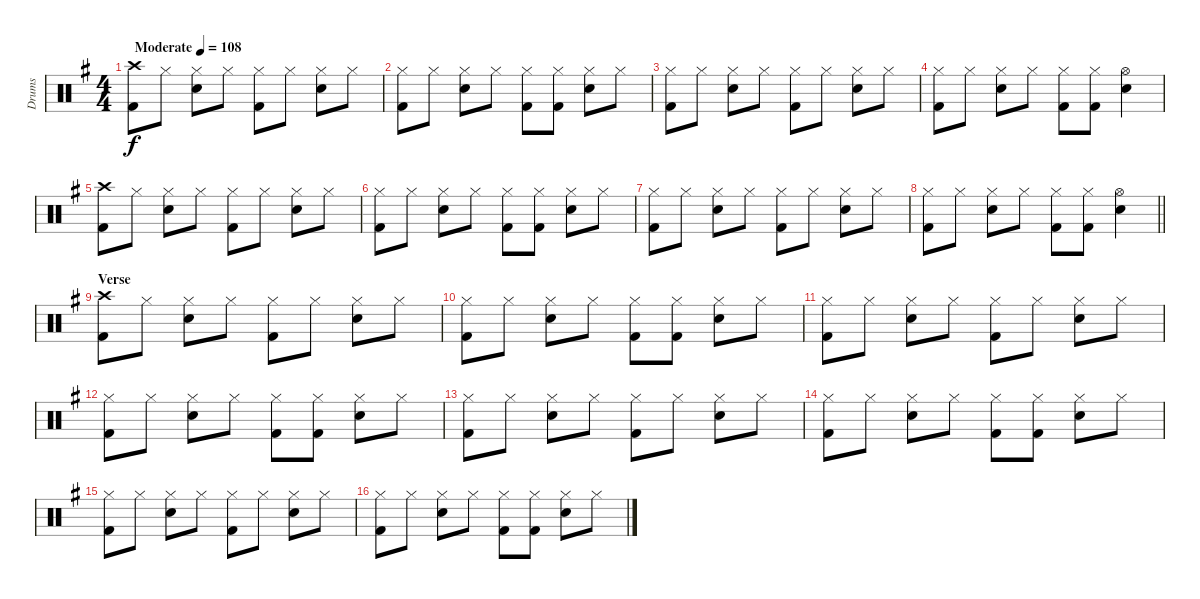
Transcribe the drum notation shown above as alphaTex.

\track ("Drums" "Drums") {instrument percussion}
\staff {score}
\articulation defaults
\ts (4 4)
\tempo (108 "Moderate")
\clef neutral
\ks g
("Crash high (hit)" "Kick (hit) 2").8{dy f} "Hi-Hat (closed)".8 ("Hi-Hat (closed)" "Electric Snare (hit)").8 "Hi-Hat (closed)".8 ("Hi-Hat (closed)" "Kick (hit) 2").8 "Hi-Hat (closed)".8 ("Hi-Hat (closed)" "Electric Snare (hit)").8 "Hi-Hat (closed)".8 |
("Hi-Hat (closed)" "Kick (hit) 2").8 "Hi-Hat (closed)".8 ("Hi-Hat (closed)" "Electric Snare (hit)").8 "Hi-Hat (closed)".8 ("Hi-Hat (closed)" "Kick (hit) 2").8 ("Hi-Hat (closed)" "Kick (hit) 2").8 ("Hi-Hat (closed)" "Electric Snare (hit)").8 "Hi-Hat (closed)".8 |
("Hi-Hat (closed)" "Kick (hit) 2").8 "Hi-Hat (closed)".8 ("Hi-Hat (closed)" "Electric Snare (hit)").8 "Hi-Hat (closed)".8 ("Hi-Hat (closed)" "Kick (hit) 2").8 "Hi-Hat (closed)".8 ("Hi-Hat (closed)" "Electric Snare (hit)").8 "Hi-Hat (closed)".8 |
("Hi-Hat (closed)" "Kick (hit) 2").8 "Hi-Hat (closed)".8 ("Hi-Hat (closed)" "Electric Snare (hit)").8 "Hi-Hat (closed)".8 ("Hi-Hat (closed)" "Kick (hit) 2").8 ("Hi-Hat (closed)" "Kick (hit) 2").8 ("Hi-Hat (open)" "Electric Snare (hit)").4 |
("Crash high (hit)" "Kick (hit) 2").8 "Hi-Hat (closed)".8 ("Hi-Hat (closed)" "Electric Snare (hit)").8 "Hi-Hat (closed)".8 ("Hi-Hat (closed)" "Kick (hit) 2").8 "Hi-Hat (closed)".8 ("Hi-Hat (closed)" "Electric Snare (hit)").8 "Hi-Hat (closed)".8 |
("Hi-Hat (closed)" "Kick (hit) 2").8 "Hi-Hat (closed)".8 ("Hi-Hat (closed)" "Electric Snare (hit)").8 "Hi-Hat (closed)".8 ("Hi-Hat (closed)" "Kick (hit) 2").8 ("Hi-Hat (closed)" "Kick (hit) 2").8 ("Hi-Hat (closed)" "Electric Snare (hit)").8 "Hi-Hat (closed)".8 |
("Hi-Hat (closed)" "Kick (hit) 2").8 "Hi-Hat (closed)".8 ("Hi-Hat (closed)" "Electric Snare (hit)").8 "Hi-Hat (closed)".8 ("Hi-Hat (closed)" "Kick (hit) 2").8 "Hi-Hat (closed)".8 ("Hi-Hat (closed)" "Electric Snare (hit)").8 "Hi-Hat (closed)".8 |
\barLineRight lightlight
("Hi-Hat (closed)" "Kick (hit) 2").8 "Hi-Hat (closed)".8 ("Hi-Hat (closed)" "Electric Snare (hit)").8 "Hi-Hat (closed)".8 ("Hi-Hat (closed)" "Kick (hit) 2").8 ("Hi-Hat (closed)" "Kick (hit) 2").8 ("Hi-Hat (open)" "Electric Snare (hit)").4 |
\section ("" "Verse")
("Crash high (hit)" "Kick (hit) 2").8 "Hi-Hat (closed)".8 ("Hi-Hat (closed)" "Electric Snare (hit)").8 "Hi-Hat (closed)".8 ("Hi-Hat (closed)" "Kick (hit) 2").8 "Hi-Hat (closed)".8 ("Hi-Hat (closed)" "Electric Snare (hit)").8 "Hi-Hat (closed)".8 |
("Hi-Hat (closed)" "Kick (hit) 2").8 "Hi-Hat (closed)".8 ("Hi-Hat (closed)" "Electric Snare (hit)").8 "Hi-Hat (closed)".8 ("Hi-Hat (closed)" "Kick (hit) 2").8 ("Hi-Hat (closed)" "Kick (hit) 2").8 ("Hi-Hat (closed)" "Electric Snare (hit)").8 "Hi-Hat (closed)".8 |
("Hi-Hat (closed)" "Kick (hit) 2").8 "Hi-Hat (closed)".8 ("Hi-Hat (closed)" "Electric Snare (hit)").8 "Hi-Hat (closed)".8 ("Hi-Hat (closed)" "Kick (hit) 2").8 "Hi-Hat (closed)".8 ("Hi-Hat (closed)" "Electric Snare (hit)").8 "Hi-Hat (closed)".8 |
("Hi-Hat (closed)" "Kick (hit) 2").8 "Hi-Hat (closed)".8 ("Hi-Hat (closed)" "Electric Snare (hit)").8 "Hi-Hat (closed)".8 ("Hi-Hat (closed)" "Kick (hit) 2").8 ("Hi-Hat (closed)" "Kick (hit) 2").8 ("Hi-Hat (closed)" "Electric Snare (hit)").8 "Hi-Hat (closed)".8 |
("Hi-Hat (closed)" "Kick (hit) 2").8 "Hi-Hat (closed)".8 ("Hi-Hat (closed)" "Electric Snare (hit)").8 "Hi-Hat (closed)".8 ("Hi-Hat (closed)" "Kick (hit) 2").8 "Hi-Hat (closed)".8 ("Hi-Hat (closed)" "Electric Snare (hit)").8 "Hi-Hat (closed)".8 |
("Hi-Hat (closed)" "Kick (hit) 2").8 "Hi-Hat (closed)".8 ("Hi-Hat (closed)" "Electric Snare (hit)").8 "Hi-Hat (closed)".8 ("Hi-Hat (closed)" "Kick (hit) 2").8 ("Hi-Hat (closed)" "Kick (hit) 2").8 ("Hi-Hat (closed)" "Electric Snare (hit)").8 "Hi-Hat (closed)".8 |
("Hi-Hat (closed)" "Kick (hit) 2").8 "Hi-Hat (closed)".8 ("Hi-Hat (closed)" "Electric Snare (hit)").8 "Hi-Hat (closed)".8 ("Hi-Hat (closed)" "Kick (hit) 2").8 "Hi-Hat (closed)".8 ("Hi-Hat (closed)" "Electric Snare (hit)").8 "Hi-Hat (closed)".8 |
("Hi-Hat (closed)" "Kick (hit) 2").8 "Hi-Hat (closed)".8 ("Hi-Hat (closed)" "Electric Snare (hit)").8 "Hi-Hat (closed)".8 ("Hi-Hat (closed)" "Kick (hit) 2").8 ("Hi-Hat (closed)" "Kick (hit) 2").8 ("Hi-Hat (closed)" "Electric Snare (hit)").8 "Hi-Hat (closed)".8
